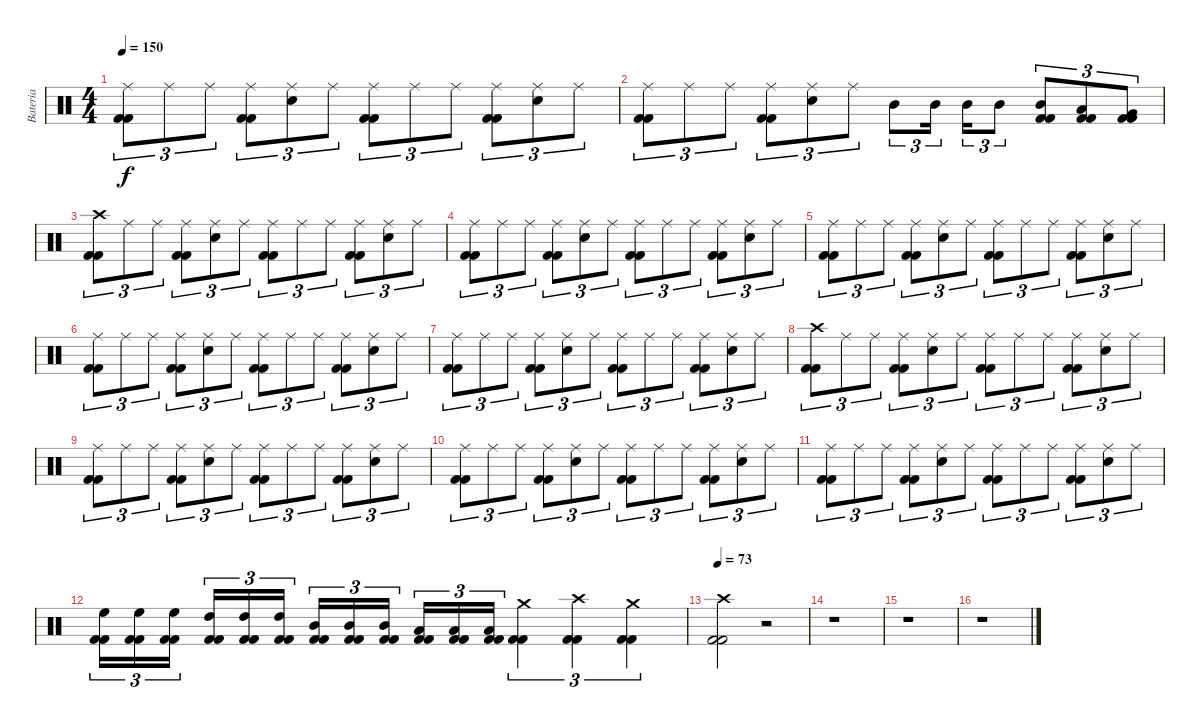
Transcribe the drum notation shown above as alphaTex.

\track ("Bateria" "Bateria") {instrument percussion}
\staff {score}
\articulation defaults
\ts (4 4)
\tempo 150
\clef neutral
\ks c
("Kick (hit) 2" "Kick (hit) 2" "Ride (middle)").8{tu (3 2) dy f} "Ride (middle)".8{tu (3 2)} "Ride (middle)".8{tu (3 2)} ("Kick (hit) 2" "Kick (hit) 2" "Ride (middle)").8{tu (3 2)} ("Snare (hit) 2" "Ride (middle)").8{tu (3 2)} "Ride (middle)".8{tu (3 2)} ("Kick (hit) 2" "Kick (hit) 2" "Ride (middle)").8{tu (3 2)} "Ride (middle)".8{tu (3 2)} "Ride (middle)".8{tu (3 2)} ("Kick (hit) 2" "Kick (hit) 2" "Ride (middle)").8{tu (3 2)} ("Snare (hit) 2" "Ride (middle)").8{tu (3 2)} "Ride (middle)".8{tu (3 2)} |
("Kick (hit) 2" "Kick (hit) 2" "Ride (middle)").8{tu (3 2)} "Ride (middle)".8{tu (3 2)} "Ride (middle)".8{tu (3 2)} ("Kick (hit) 2" "Kick (hit) 2" "Ride (middle)").8{tu (3 2)} ("Snare (hit) 2" "Ride (middle)").8{tu (3 2)} "Ride (middle)".8{tu (3 2)} "Mid Tom (hit)".8{tu (3 2)} "Mid Tom (hit)".16{tu (3 2)} "Mid Tom (hit)".16{tu (3 2)} "Mid Tom (hit)".8{tu (3 2)} ("Kick (hit) 2" "Kick (hit) 2" "Mid Tom (hit)").8{tu (3 2)} ("Kick (hit) 2" "Kick (hit) 2" "Low Tom (hit)").8{tu (3 2)} ("Kick (hit) 2" "Kick (hit) 2" "Very Low Tom (hit)").8{tu (3 2)} |
("Kick (hit) 2" "Kick (hit) 2" "Crash high (hit)").8{tu (3 2)} "Ride (middle)".8{tu (3 2)} "Ride (middle)".8{tu (3 2)} ("Kick (hit) 2" "Kick (hit) 2" "Ride (middle)").8{tu (3 2)} ("Snare (hit) 2" "Ride (middle)").8{tu (3 2)} "Ride (middle)".8{tu (3 2)} ("Kick (hit) 2" "Kick (hit) 2" "Ride (middle)").8{tu (3 2)} "Ride (middle)".8{tu (3 2)} "Ride (middle)".8{tu (3 2)} ("Kick (hit) 2" "Kick (hit) 2" "Ride (middle)").8{tu (3 2)} ("Snare (hit) 2" "Ride (middle)").8{tu (3 2)} "Ride (middle)".8{tu (3 2)} |
("Kick (hit) 2" "Kick (hit) 2" "Ride (middle)").8{tu (3 2)} "Ride (middle)".8{tu (3 2)} "Ride (middle)".8{tu (3 2)} ("Kick (hit) 2" "Kick (hit) 2" "Ride (middle)").8{tu (3 2)} ("Snare (hit) 2" "Ride (middle)").8{tu (3 2)} "Ride (middle)".8{tu (3 2)} ("Kick (hit) 2" "Kick (hit) 2" "Ride (middle)").8{tu (3 2)} "Ride (middle)".8{tu (3 2)} "Ride (middle)".8{tu (3 2)} ("Kick (hit) 2" "Kick (hit) 2" "Ride (middle)").8{tu (3 2)} ("Snare (hit) 2" "Ride (middle)").8{tu (3 2)} "Ride (middle)".8{tu (3 2)} |
("Kick (hit) 2" "Kick (hit) 2" "Ride (middle)").8{tu (3 2)} "Ride (middle)".8{tu (3 2)} "Ride (middle)".8{tu (3 2)} ("Kick (hit) 2" "Kick (hit) 2" "Ride (middle)").8{tu (3 2)} ("Snare (hit) 2" "Ride (middle)").8{tu (3 2)} "Ride (middle)".8{tu (3 2)} ("Kick (hit) 2" "Kick (hit) 2" "Ride (middle)").8{tu (3 2)} "Ride (middle)".8{tu (3 2)} "Ride (middle)".8{tu (3 2)} ("Kick (hit) 2" "Kick (hit) 2" "Ride (middle)").8{tu (3 2)} ("Snare (hit) 2" "Ride (middle)").8{tu (3 2)} "Ride (middle)".8{tu (3 2)} |
("Kick (hit) 2" "Kick (hit) 2" "Ride (middle)").8{tu (3 2)} "Ride (middle)".8{tu (3 2)} "Ride (middle)".8{tu (3 2)} ("Kick (hit) 2" "Kick (hit) 2" "Ride (middle)").8{tu (3 2)} ("Snare (hit) 2" "Ride (middle)").8{tu (3 2)} "Ride (middle)".8{tu (3 2)} ("Kick (hit) 2" "Kick (hit) 2" "Ride (middle)").8{tu (3 2)} "Ride (middle)".8{tu (3 2)} "Ride (middle)".8{tu (3 2)} ("Kick (hit) 2" "Kick (hit) 2" "Ride (middle)").8{tu (3 2)} ("Snare (hit) 2" "Ride (middle)").8{tu (3 2)} "Ride (middle)".8{tu (3 2)} |
("Kick (hit) 2" "Kick (hit) 2" "Ride (middle)").8{tu (3 2)} "Ride (middle)".8{tu (3 2)} "Ride (middle)".8{tu (3 2)} ("Kick (hit) 2" "Kick (hit) 2" "Ride (middle)").8{tu (3 2)} ("Snare (hit) 2" "Ride (middle)").8{tu (3 2)} "Ride (middle)".8{tu (3 2)} ("Kick (hit) 2" "Kick (hit) 2" "Ride (middle)").8{tu (3 2)} "Ride (middle)".8{tu (3 2)} "Ride (middle)".8{tu (3 2)} ("Kick (hit) 2" "Kick (hit) 2" "Ride (middle)").8{tu (3 2)} ("Snare (hit) 2" "Ride (middle)").8{tu (3 2)} "Ride (middle)".8{tu (3 2)} |
("Kick (hit) 2" "Kick (hit) 2" "Crash high (hit)").8{tu (3 2)} "Ride (middle)".8{tu (3 2)} "Ride (middle)".8{tu (3 2)} ("Kick (hit) 2" "Kick (hit) 2" "Ride (middle)").8{tu (3 2)} ("Snare (hit) 2" "Ride (middle)").8{tu (3 2)} "Ride (middle)".8{tu (3 2)} ("Kick (hit) 2" "Kick (hit) 2" "Ride (middle)").8{tu (3 2)} "Ride (middle)".8{tu (3 2)} "Ride (middle)".8{tu (3 2)} ("Kick (hit) 2" "Kick (hit) 2" "Ride (middle)").8{tu (3 2)} ("Snare (hit) 2" "Ride (middle)").8{tu (3 2)} "Ride (middle)".8{tu (3 2)} |
("Kick (hit) 2" "Kick (hit) 2" "Ride (middle)").8{tu (3 2)} "Ride (middle)".8{tu (3 2)} "Ride (middle)".8{tu (3 2)} ("Kick (hit) 2" "Kick (hit) 2" "Ride (middle)").8{tu (3 2)} ("Snare (hit) 2" "Ride (middle)").8{tu (3 2)} "Ride (middle)".8{tu (3 2)} ("Kick (hit) 2" "Kick (hit) 2" "Ride (middle)").8{tu (3 2)} "Ride (middle)".8{tu (3 2)} "Ride (middle)".8{tu (3 2)} ("Kick (hit) 2" "Kick (hit) 2" "Ride (middle)").8{tu (3 2)} ("Snare (hit) 2" "Ride (middle)").8{tu (3 2)} "Ride (middle)".8{tu (3 2)} |
("Kick (hit) 2" "Kick (hit) 2" "Ride (middle)").8{tu (3 2)} "Ride (middle)".8{tu (3 2)} "Ride (middle)".8{tu (3 2)} ("Kick (hit) 2" "Kick (hit) 2" "Ride (middle)").8{tu (3 2)} ("Snare (hit) 2" "Ride (middle)").8{tu (3 2)} "Ride (middle)".8{tu (3 2)} ("Kick (hit) 2" "Kick (hit) 2" "Ride (middle)").8{tu (3 2)} "Ride (middle)".8{tu (3 2)} "Ride (middle)".8{tu (3 2)} ("Kick (hit) 2" "Kick (hit) 2" "Ride (middle)").8{tu (3 2)} ("Snare (hit) 2" "Ride (middle)").8{tu (3 2)} "Ride (middle)".8{tu (3 2)} |
("Kick (hit) 2" "Kick (hit) 2" "Ride (middle)").8{tu (3 2)} "Ride (middle)".8{tu (3 2)} "Ride (middle)".8{tu (3 2)} ("Kick (hit) 2" "Kick (hit) 2" "Ride (middle)").8{tu (3 2)} ("Snare (hit) 2" "Ride (middle)").8{tu (3 2)} "Ride (middle)".8{tu (3 2)} ("Kick (hit) 2" "Kick (hit) 2" "Ride (middle)").8{tu (3 2)} "Ride (middle)".8{tu (3 2)} "Ride (middle)".8{tu (3 2)} ("Kick (hit) 2" "Kick (hit) 2" "Ride (middle)").8{tu (3 2)} ("Snare (hit) 2" "Ride (middle)").8{tu (3 2)} "Ride (middle)".8{tu (3 2)} |
("Kick (hit) 2" "Kick (hit) 2" "High Floor Tom (hit)").16{tu (3 2)} ("Kick (hit) 2" "Kick (hit) 2" "High Floor Tom (hit)").16{tu (3 2)} ("Kick (hit) 2" "Kick (hit) 2" "High Floor Tom (hit)").16{tu (3 2)} ("Kick (hit) 2" "Kick (hit) 2" "High Tom (hit)").16{tu (3 2)} ("Kick (hit) 2" "Kick (hit) 2" "High Tom (hit)").16{tu (3 2)} ("Kick (hit) 2" "Kick (hit) 2" "High Tom (hit)").16{tu (3 2)} ("Kick (hit) 2" "Kick (hit) 2" "Mid Tom (hit)").16{tu (3 2)} ("Kick (hit) 2" "Kick (hit) 2" "Mid Tom (hit)").16{tu (3 2)} ("Kick (hit) 2" "Kick (hit) 2" "Mid Tom (hit)").16{tu (3 2)} ("Kick (hit) 2" "Kick (hit) 2" "Low Tom (hit)").16{tu (3 2)} ("Kick (hit) 2" "Kick (hit) 2" "Low Tom (hit)").16{tu (3 2)} ("Kick (hit) 2" "Kick (hit) 2" "Low Tom (hit)").16{tu (3 2)} ("Kick (hit) 2" "Kick (hit) 2" "Crash medium (hit)").4{tu (3 2)} ("Kick (hit) 2" "Kick (hit) 2" "Crash high (hit)").4{tu (3 2)} ("Kick (hit) 2" "Kick (hit) 2" "Crash medium (hit)").4{tu (3 2)} |
\tempo 73
("Kick (hit) 2" "Kick (hit) 2" "Crash high (hit)").2 r.2 |
r.1 |
r.1 |
r.1
